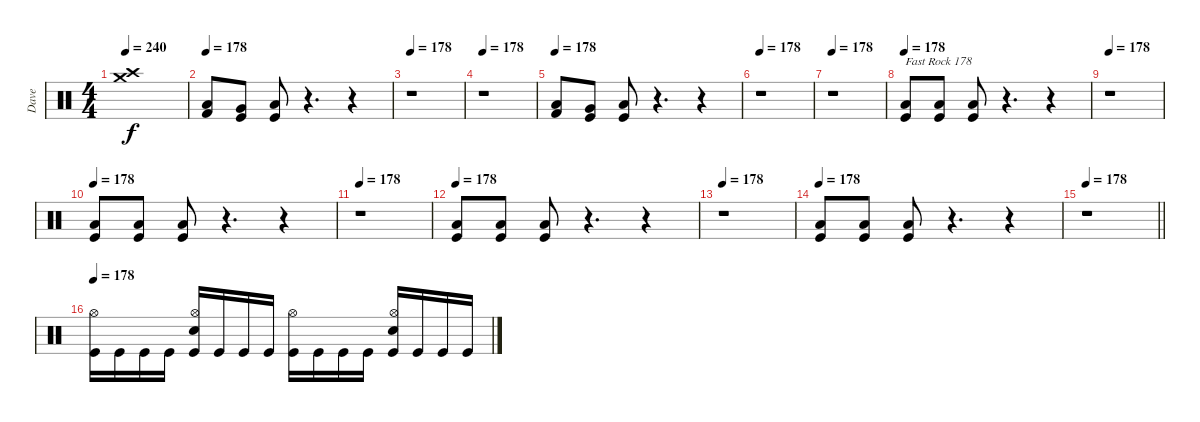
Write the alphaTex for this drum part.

\track ("Dave" "Dave") {instrument percussion}
\staff {score}
\articulation defaults
\ts (4 4)
\tempo 240
\clef neutral
\ks c
("Crash high (hit)" "Crash medium (hit)").1{dy f} |
\tempo 178
("Low Floor Tom (hit)" "Kick (hit) 2").8 ("Very Low Tom (hit)" "Kick (hit)").8 ("Low Floor Tom (hit)" "Kick (hit)").8 r.4{d} r.4 |
\tempo 178
r.1 |
\tempo 178
r.1 |
\tempo 178
("Low Floor Tom (hit)" "Kick (hit) 2").8 ("Very Low Tom (hit)" "Kick (hit)").8 ("Low Floor Tom (hit)" "Kick (hit)").8 r.4{d} r.4 |
\tempo 178
r.1 |
\tempo 178
r.1 |
\tempo 178
("Low Floor Tom (hit)" "Kick (hit)").8{txt "Fast Rock 178"} ("Low Floor Tom (hit)" "Kick (hit)").8 ("Low Floor Tom (hit)" "Kick (hit)").8 r.4{d} r.4 |
\tempo 178
r.1 |
\tempo 178
("Low Floor Tom (hit)" "Kick (hit)").8 ("Low Floor Tom (hit)" "Kick (hit)").8 ("Low Floor Tom (hit)" "Kick (hit)").8 r.4{d} r.4 |
\tempo 178
r.1 |
\tempo 178
("Low Floor Tom (hit)" "Kick (hit)").8 ("Low Floor Tom (hit)" "Kick (hit)").8 ("Low Floor Tom (hit)" "Kick (hit)").8 r.4{d} r.4 |
\tempo 178
r.1 |
\tempo 178
("Low Floor Tom (hit)" "Kick (hit)").8 ("Low Floor Tom (hit)" "Kick (hit)").8 ("Low Floor Tom (hit)" "Kick (hit)").8 r.4{d} r.4 |
\tempo 178
\barLineRight lightlight
r.1 |
\tempo 178
("Hi-Hat (open)" "Kick (hit)").16 "Kick (hit)".16 "Kick (hit)".16 "Kick (hit)".16 ("Hi-Hat (open)" "Snare (hit) 2" "Kick (hit)").16 "Kick (hit)".16 "Kick (hit)".16 "Kick (hit)".16 ("Hi-Hat (open)" "Kick (hit)").16 "Kick (hit)".16 "Kick (hit)".16 "Kick (hit)".16 ("Hi-Hat (open)" "Snare (hit) 2" "Kick (hit)").16 "Kick (hit)".16 "Kick (hit)".16 "Kick (hit)".16
